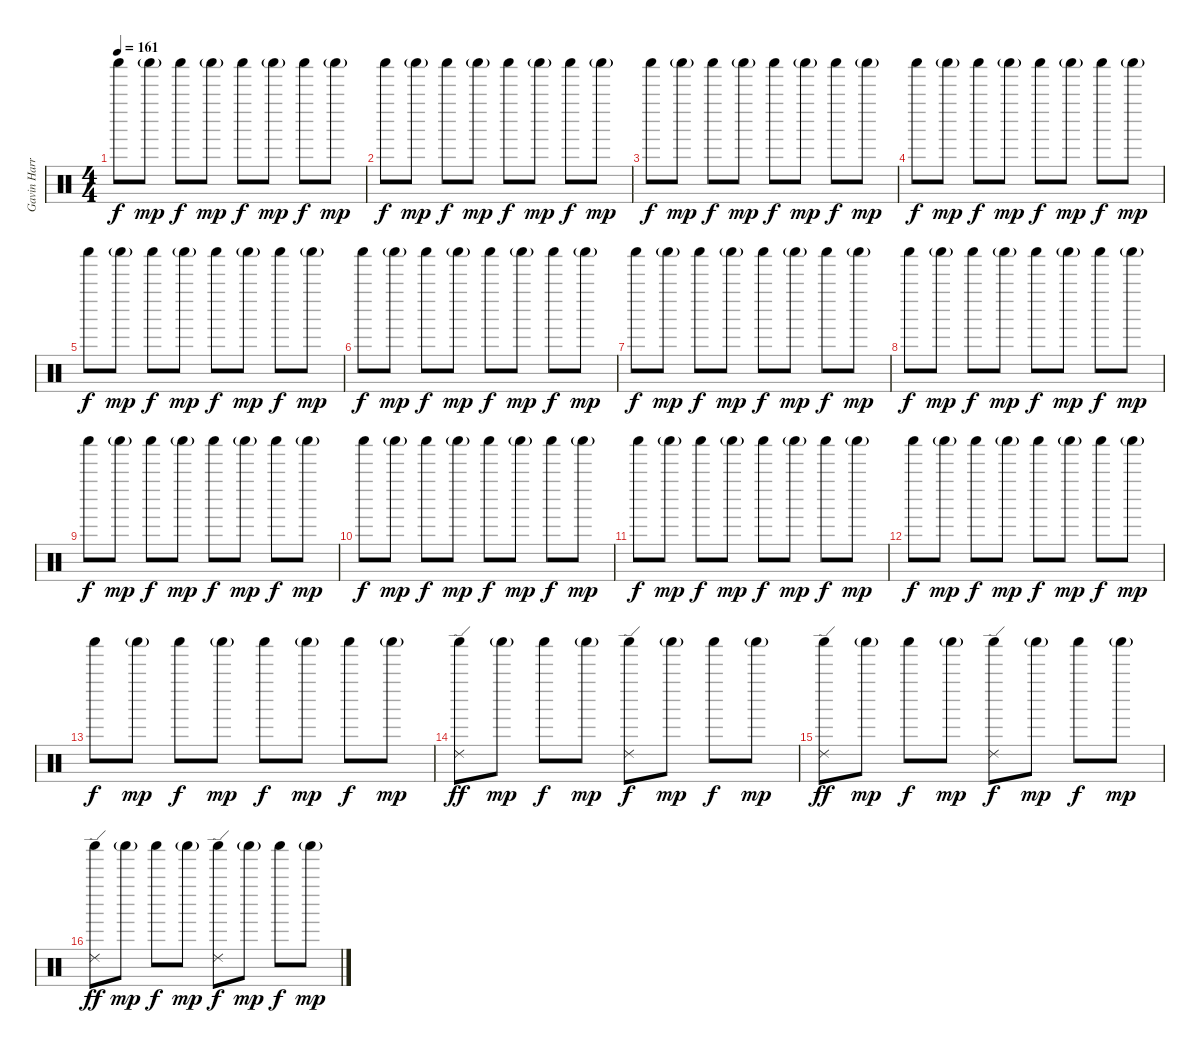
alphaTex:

\track ("Gavin Harrison (Drums)" "Gavin Harr") {instrument percussion}
\staff {score}
\articulation defaults
\ts (4 4)
\tempo 161
\clef neutral
\ks c "Shaker (hit)".8{dy f} "Shaker (hit)"{g}.8{dy mp} "Shaker (hit)".8{dy f} "Shaker (hit)"{g}.8{dy mp} "Shaker (hit)".8{dy f} "Shaker (hit)"{g}.8{dy mp} "Shaker (hit)".8{dy f} "Shaker (hit)"{g}.8{dy mp}
|
"Shaker (hit)".8{dy f} "Shaker (hit)"{g}.8{dy mp} "Shaker (hit)".8{dy f} "Shaker (hit)"{g}.8{dy mp} "Shaker (hit)".8{dy f} "Shaker (hit)"{g}.8{dy mp} "Shaker (hit)".8{dy f} "Shaker (hit)"{g}.8{dy mp} |
"Shaker (hit)".8{dy f} "Shaker (hit)"{g}.8{dy mp} "Shaker (hit)".8{dy f} "Shaker (hit)"{g}.8{dy mp} "Shaker (hit)".8{dy f} "Shaker (hit)"{g}.8{dy mp} "Shaker (hit)".8{dy f} "Shaker (hit)"{g}.8{dy mp} |
"Shaker (hit)".8{dy f} "Shaker (hit)"{g}.8{dy mp} "Shaker (hit)".8{dy f} "Shaker (hit)"{g}.8{dy mp} "Shaker (hit)".8{dy f} "Shaker (hit)"{g}.8{dy mp} "Shaker (hit)".8{dy f} "Shaker (hit)"{g}.8{dy mp} |
"Shaker (hit)".8{dy f} "Shaker (hit)"{g}.8{dy mp} "Shaker (hit)".8{dy f} "Shaker (hit)"{g}.8{dy mp} "Shaker (hit)".8{dy f} "Shaker (hit)"{g}.8{dy mp} "Shaker (hit)".8{dy f} "Shaker (hit)"{g}.8{dy mp} |
"Shaker (hit)".8{dy f} "Shaker (hit)"{g}.8{dy mp} "Shaker (hit)".8{dy f} "Shaker (hit)"{g}.8{dy mp} "Shaker (hit)".8{dy f} "Shaker (hit)"{g}.8{dy mp} "Shaker (hit)".8{dy f} "Shaker (hit)"{g}.8{dy mp} |
"Shaker (hit)".8{dy f} "Shaker (hit)"{g}.8{dy mp} "Shaker (hit)".8{dy f} "Shaker (hit)"{g}.8{dy mp} "Shaker (hit)".8{dy f} "Shaker (hit)"{g}.8{dy mp} "Shaker (hit)".8{dy f} "Shaker (hit)"{g}.8{dy mp} |
"Shaker (hit)".8{dy f} "Shaker (hit)"{g}.8{dy mp} "Shaker (hit)".8{dy f} "Shaker (hit)"{g}.8{dy mp} "Shaker (hit)".8{dy f} "Shaker (hit)"{g}.8{dy mp} "Shaker (hit)".8{dy f} "Shaker (hit)"{g}.8{dy mp} |
"Shaker (hit)".8{dy f} "Shaker (hit)"{g}.8{dy mp} "Shaker (hit)".8{dy f} "Shaker (hit)"{g}.8{dy mp} "Shaker (hit)".8{dy f} "Shaker (hit)"{g}.8{dy mp} "Shaker (hit)".8{dy f} "Shaker (hit)"{g}.8{dy mp} |
"Shaker (hit)".8{dy f} "Shaker (hit)"{g}.8{dy mp} "Shaker (hit)".8{dy f} "Shaker (hit)"{g}.8{dy mp} "Shaker (hit)".8{dy f} "Shaker (hit)"{g}.8{dy mp} "Shaker (hit)".8{dy f} "Shaker (hit)"{g}.8{dy mp} |
"Shaker (hit)".8{dy f} "Shaker (hit)"{g}.8{dy mp} "Shaker (hit)".8{dy f} "Shaker (hit)"{g}.8{dy mp} "Shaker (hit)".8{dy f} "Shaker (hit)"{g}.8{dy mp} "Shaker (hit)".8{dy f} "Shaker (hit)"{g}.8{dy mp} |
"Shaker (hit)".8{dy f} "Shaker (hit)"{g}.8{dy mp} "Shaker (hit)".8{dy f} "Shaker (hit)"{g}.8{dy mp} "Shaker (hit)".8{dy f} "Shaker (hit)"{g}.8{dy mp} "Shaker (hit)".8{dy f} "Shaker (hit)"{g}.8{dy mp} |
"Shaker (hit)".8{dy f} "Shaker (hit)"{g}.8{dy mp} "Shaker (hit)".8{dy f} "Shaker (hit)"{g}.8{dy mp} "Shaker (hit)".8{dy f} "Shaker (hit)"{g}.8{dy mp} "Shaker (hit)".8{dy f} "Shaker (hit)"{g}.8{dy mp} |
("Ride (edge) 2" "Shaker (hit)").8{dy ff} "Shaker (hit)"{g}.8{dy mp} "Shaker (hit)".8{dy f} "Shaker (hit)"{g}.8{dy mp} ("Ride (edge) 2" "Shaker (hit)").8{dy f} "Shaker (hit)"{g}.8{dy mp} "Shaker (hit)".8{dy f} "Shaker (hit)"{g}.8{dy mp} |
("Ride (edge) 2" "Shaker (hit)").8{dy ff} "Shaker (hit)"{g}.8{dy mp} "Shaker (hit)".8{dy f} "Shaker (hit)"{g}.8{dy mp} ("Ride (edge) 2" "Shaker (hit)").8{dy f} "Shaker (hit)"{g}.8{dy mp} "Shaker (hit)".8{dy f} "Shaker (hit)"{g}.8{dy mp} |
("Ride (edge) 2" "Shaker (hit)").8{dy ff} "Shaker (hit)"{g}.8{dy mp} "Shaker (hit)".8{dy f} "Shaker (hit)"{g}.8{dy mp} ("Ride (edge) 2" "Shaker (hit)").8{dy f} "Shaker (hit)"{g}.8{dy mp} "Shaker (hit)".8{dy f} "Shaker (hit)"{g}.8{dy mp}
